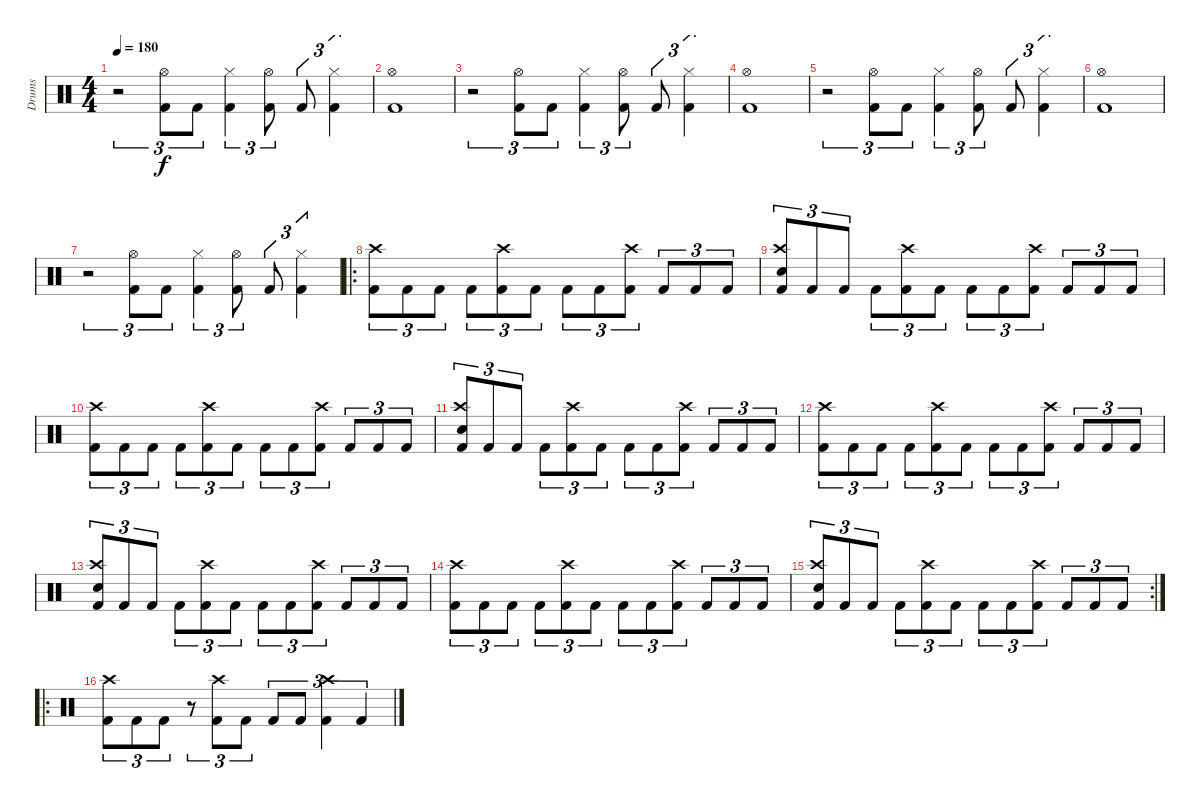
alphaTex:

\track ("Drums" "Drums") {instrument percussion}
\staff {score}
\articulation defaults
\ts (4 4)
\tempo 180
\clef neutral
\ks c
r.2{tu (3 2) dy f} ("Hi-Hat (open)" "Kick (hit) 2").8{tu (3 2)} "Kick (hit) 2".8{tu (3 2)} ("Hi-Hat (closed)" "Kick (hit) 2").4{tu (3 2)} ("Hi-Hat (open)" "Kick (hit) 2").8{tu (3 2)} "Kick (hit) 2".8{tu (3 2)} ("Hi-Hat (closed)" "Kick (hit) 2").4{tu (3 2)} |
("Hi-Hat (open)" "Kick (hit) 2").1 |
r.2{tu (3 2)} ("Hi-Hat (open)" "Kick (hit) 2").8{tu (3 2)} "Kick (hit) 2".8{tu (3 2)} ("Hi-Hat (closed)" "Kick (hit) 2").4{tu (3 2)} ("Hi-Hat (open)" "Kick (hit) 2").8{tu (3 2)} "Kick (hit) 2".8{tu (3 2)} ("Hi-Hat (closed)" "Kick (hit) 2").4{tu (3 2)} |
("Hi-Hat (open)" "Kick (hit) 2").1 |
r.2{tu (3 2)} ("Hi-Hat (open)" "Kick (hit) 2").8{tu (3 2)} "Kick (hit) 2".8{tu (3 2)} ("Hi-Hat (closed)" "Kick (hit) 2").4{tu (3 2)} ("Hi-Hat (open)" "Kick (hit) 2").8{tu (3 2)} "Kick (hit) 2".8{tu (3 2)} ("Hi-Hat (closed)" "Kick (hit) 2").4{tu (3 2)} |
("Hi-Hat (open)" "Kick (hit) 2").1 |
r.2{tu (3 2)} ("Hi-Hat (open)" "Kick (hit) 2").8{tu (3 2)} "Kick (hit) 2".8{tu (3 2)} ("Hi-Hat (closed)" "Kick (hit) 2").4{tu (3 2)} ("Hi-Hat (open)" "Kick (hit) 2").8{tu (3 2)} "Kick (hit) 2".8{tu (3 2)} ("Hi-Hat (closed)" "Kick (hit) 2").4{tu (3 2)} |
\ro
("Crash high (hit)" "Kick (hit) 2").8{tu (3 2)} "Kick (hit) 2".8{tu (3 2)} "Kick (hit) 2".8{tu (3 2)} "Kick (hit) 2".8{tu (3 2)} ("Crash high (hit)" "Kick (hit) 2").8{tu (3 2)} "Kick (hit) 2".8{tu (3 2)} "Kick (hit) 2".8{tu (3 2)} "Kick (hit) 2".8{tu (3 2)} ("Crash high (hit)" "Kick (hit) 2").8{tu (3 2)} "Kick (hit) 2".8{tu (3 2)} "Kick (hit) 2".8{tu (3 2)} "Kick (hit) 2".8{tu (3 2)} |
("Crash high (hit)" "Electric Snare (hit)" "Kick (hit) 2").8{tu (3 2)} "Kick (hit) 2".8{tu (3 2)} "Kick (hit) 2".8{tu (3 2)} "Kick (hit) 2".8{tu (3 2)} ("Crash high (hit)" "Kick (hit) 2").8{tu (3 2)} "Kick (hit) 2".8{tu (3 2)} "Kick (hit) 2".8{tu (3 2)} "Kick (hit) 2".8{tu (3 2)} ("Crash high (hit)" "Kick (hit) 2").8{tu (3 2)} "Kick (hit) 2".8{tu (3 2)} "Kick (hit) 2".8{tu (3 2)} "Kick (hit) 2".8{tu (3 2)} |
("Crash high (hit)" "Kick (hit) 2").8{tu (3 2)} "Kick (hit) 2".8{tu (3 2)} "Kick (hit) 2".8{tu (3 2)} "Kick (hit) 2".8{tu (3 2)} ("Crash high (hit)" "Kick (hit) 2").8{tu (3 2)} "Kick (hit) 2".8{tu (3 2)} "Kick (hit) 2".8{tu (3 2)} "Kick (hit) 2".8{tu (3 2)} ("Crash high (hit)" "Kick (hit) 2").8{tu (3 2)} "Kick (hit) 2".8{tu (3 2)} "Kick (hit) 2".8{tu (3 2)} "Kick (hit) 2".8{tu (3 2)} |
("Crash high (hit)" "Electric Snare (hit)" "Kick (hit) 2").8{tu (3 2)} "Kick (hit) 2".8{tu (3 2)} "Kick (hit) 2".8{tu (3 2)} "Kick (hit) 2".8{tu (3 2)} ("Crash high (hit)" "Kick (hit) 2").8{tu (3 2)} "Kick (hit) 2".8{tu (3 2)} "Kick (hit) 2".8{tu (3 2)} "Kick (hit) 2".8{tu (3 2)} ("Crash high (hit)" "Kick (hit) 2").8{tu (3 2)} "Kick (hit) 2".8{tu (3 2)} "Kick (hit) 2".8{tu (3 2)} "Kick (hit) 2".8{tu (3 2)} |
("Crash high (hit)" "Kick (hit) 2").8{tu (3 2)} "Kick (hit) 2".8{tu (3 2)} "Kick (hit) 2".8{tu (3 2)} "Kick (hit) 2".8{tu (3 2)} ("Crash high (hit)" "Kick (hit) 2").8{tu (3 2)} "Kick (hit) 2".8{tu (3 2)} "Kick (hit) 2".8{tu (3 2)} "Kick (hit) 2".8{tu (3 2)} ("Crash high (hit)" "Kick (hit) 2").8{tu (3 2)} "Kick (hit) 2".8{tu (3 2)} "Kick (hit) 2".8{tu (3 2)} "Kick (hit) 2".8{tu (3 2)} |
("Crash high (hit)" "Electric Snare (hit)" "Kick (hit) 2").8{tu (3 2)} "Kick (hit) 2".8{tu (3 2)} "Kick (hit) 2".8{tu (3 2)} "Kick (hit) 2".8{tu (3 2)} ("Crash high (hit)" "Kick (hit) 2").8{tu (3 2)} "Kick (hit) 2".8{tu (3 2)} "Kick (hit) 2".8{tu (3 2)} "Kick (hit) 2".8{tu (3 2)} ("Crash high (hit)" "Kick (hit) 2").8{tu (3 2)} "Kick (hit) 2".8{tu (3 2)} "Kick (hit) 2".8{tu (3 2)} "Kick (hit) 2".8{tu (3 2)} |
("Crash high (hit)" "Kick (hit) 2").8{tu (3 2)} "Kick (hit) 2".8{tu (3 2)} "Kick (hit) 2".8{tu (3 2)} "Kick (hit) 2".8{tu (3 2)} ("Crash high (hit)" "Kick (hit) 2").8{tu (3 2)} "Kick (hit) 2".8{tu (3 2)} "Kick (hit) 2".8{tu (3 2)} "Kick (hit) 2".8{tu (3 2)} ("Crash high (hit)" "Kick (hit) 2").8{tu (3 2)} "Kick (hit) 2".8{tu (3 2)} "Kick (hit) 2".8{tu (3 2)} "Kick (hit) 2".8{tu (3 2)} |
\rc 2
("Crash high (hit)" "Electric Snare (hit)" "Kick (hit) 2").8{tu (3 2)} "Kick (hit) 2".8{tu (3 2)} "Kick (hit) 2".8{tu (3 2)} "Kick (hit) 2".8{tu (3 2)} ("Crash high (hit)" "Kick (hit) 2").8{tu (3 2)} "Kick (hit) 2".8{tu (3 2)} "Kick (hit) 2".8{tu (3 2)} "Kick (hit) 2".8{tu (3 2)} ("Crash high (hit)" "Kick (hit) 2").8{tu (3 2)} "Kick (hit) 2".8{tu (3 2)} "Kick (hit) 2".8{tu (3 2)} "Kick (hit) 2".8{tu (3 2)} |
\ro
("Crash high (hit)" "Kick (hit) 2").8{tu (3 2)} "Kick (hit) 2".8{tu (3 2)} "Kick (hit) 2".8{tu (3 2)} r.8{tu (3 2)} ("Crash high (hit)" "Kick (hit) 2").8{tu (3 2)} "Kick (hit) 2".8{tu (3 2)} "Kick (hit) 2".8{tu (3 2)} "Kick (hit) 2".8{tu (3 2)} ("Crash high (hit)" "Kick (hit) 2").4{tu (3 2)} "Kick (hit) 2".4{tu (3 2)}
